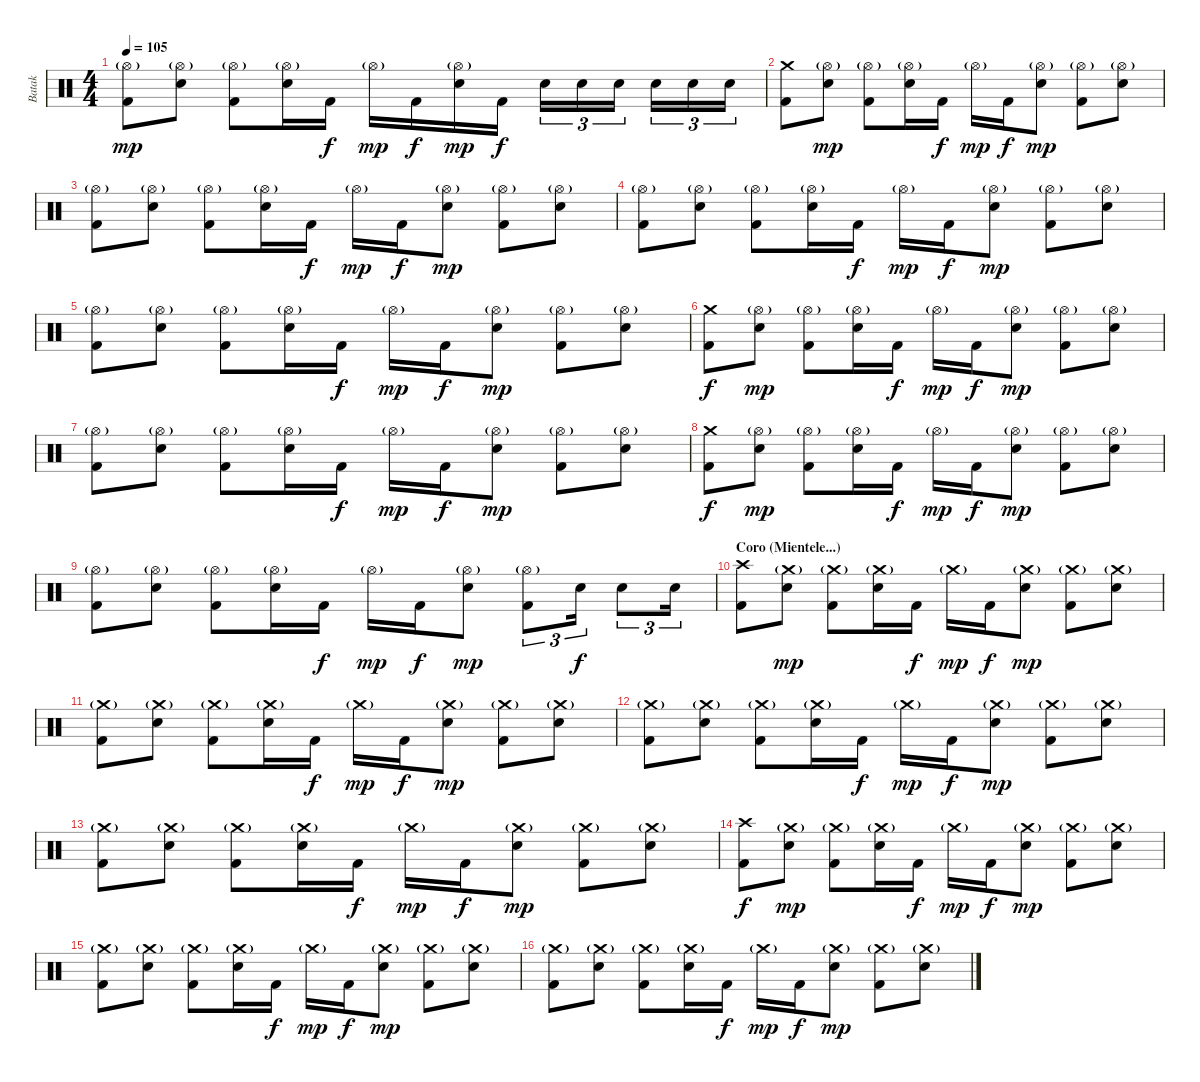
\track ("Batak" "Batak") {instrument percussion}
\staff {score}
\articulation defaults
\ts (4 4)
\tempo 105
\clef neutral
\ks c
("Hi-Hat (open)"{g} "Kick (hit) 2").8{dy mp} ("Hi-Hat (open)"{g} "Electric Snare (hit)").8 ("Hi-Hat (open)"{g} "Kick (hit) 2").8 ("Hi-Hat (open)"{g} "Electric Snare (hit)").16 "Kick (hit) 2".16{dy f} "Hi-Hat (open)"{g}.16{dy mp} "Kick (hit) 2".16{dy f} ("Hi-Hat (open)"{g} "Electric Snare (hit)").16{dy mp} "Kick (hit) 2".16{dy f} "Electric Snare (hit)".16{tu (3 2)} "Electric Snare (hit)".16{tu (3 2)} "Electric Snare (hit)".16{tu (3 2)} "Electric Snare (hit)".16{tu (3 2)} "Electric Snare (hit)".16{tu (3 2)} "Electric Snare (hit)".16{tu (3 2)} |
("Crash medium (hit)" "Kick (hit) 2").8 ("Hi-Hat (open)"{g} "Electric Snare (hit)").8{dy mp} ("Hi-Hat (open)"{g} "Kick (hit) 2").8 ("Hi-Hat (open)"{g} "Electric Snare (hit)").16 "Kick (hit) 2".16{dy f} "Hi-Hat (open)"{g}.16{dy mp} "Kick (hit) 2".16{dy f} ("Hi-Hat (open)"{g} "Electric Snare (hit)").8{dy mp} ("Hi-Hat (open)"{g} "Kick (hit) 2").8 ("Hi-Hat (open)"{g} "Electric Snare (hit)").8 |
("Hi-Hat (open)"{g} "Kick (hit) 2").8 ("Hi-Hat (open)"{g} "Electric Snare (hit)").8 ("Hi-Hat (open)"{g} "Kick (hit) 2").8 ("Hi-Hat (open)"{g} "Electric Snare (hit)").16 "Kick (hit) 2".16{dy f} "Hi-Hat (open)"{g}.16{dy mp} "Kick (hit) 2".16{dy f} ("Hi-Hat (open)"{g} "Electric Snare (hit)").8{dy mp} ("Hi-Hat (open)"{g} "Kick (hit) 2").8 ("Hi-Hat (open)"{g} "Electric Snare (hit)").8 |
("Hi-Hat (open)"{g} "Kick (hit) 2").8 ("Hi-Hat (open)"{g} "Electric Snare (hit)").8 ("Hi-Hat (open)"{g} "Kick (hit) 2").8 ("Hi-Hat (open)"{g} "Electric Snare (hit)").16 "Kick (hit) 2".16{dy f} "Hi-Hat (open)"{g}.16{dy mp} "Kick (hit) 2".16{dy f} ("Hi-Hat (open)"{g} "Electric Snare (hit)").8{dy mp} ("Hi-Hat (open)"{g} "Kick (hit) 2").8 ("Hi-Hat (open)"{g} "Electric Snare (hit)").8 |
("Hi-Hat (open)"{g} "Kick (hit) 2").8 ("Hi-Hat (open)"{g} "Electric Snare (hit)").8 ("Hi-Hat (open)"{g} "Kick (hit) 2").8 ("Hi-Hat (open)"{g} "Electric Snare (hit)").16 "Kick (hit) 2".16{dy f} "Hi-Hat (open)"{g}.16{dy mp} "Kick (hit) 2".16{dy f} ("Hi-Hat (open)"{g} "Electric Snare (hit)").8{dy mp} ("Hi-Hat (open)"{g} "Kick (hit) 2").8 ("Hi-Hat (open)"{g} "Electric Snare (hit)").8 |
("Crash medium (hit)" "Kick (hit) 2").8{dy f} ("Hi-Hat (open)"{g} "Electric Snare (hit)").8{dy mp} ("Hi-Hat (open)"{g} "Kick (hit) 2").8 ("Hi-Hat (open)"{g} "Electric Snare (hit)").16 "Kick (hit) 2".16{dy f} "Hi-Hat (open)"{g}.16{dy mp} "Kick (hit) 2".16{dy f} ("Hi-Hat (open)"{g} "Electric Snare (hit)").8{dy mp} ("Hi-Hat (open)"{g} "Kick (hit) 2").8 ("Hi-Hat (open)"{g} "Electric Snare (hit)").8 |
("Hi-Hat (open)"{g} "Kick (hit) 2").8 ("Hi-Hat (open)"{g} "Electric Snare (hit)").8 ("Hi-Hat (open)"{g} "Kick (hit) 2").8 ("Hi-Hat (open)"{g} "Electric Snare (hit)").16 "Kick (hit) 2".16{dy f} "Hi-Hat (open)"{g}.16{dy mp} "Kick (hit) 2".16{dy f} ("Hi-Hat (open)"{g} "Electric Snare (hit)").8{dy mp} ("Hi-Hat (open)"{g} "Kick (hit) 2").8 ("Hi-Hat (open)"{g} "Electric Snare (hit)").8 |
("Crash medium (hit)" "Kick (hit) 2").8{dy f} ("Hi-Hat (open)"{g} "Electric Snare (hit)").8{dy mp} ("Hi-Hat (open)"{g} "Kick (hit) 2").8 ("Hi-Hat (open)"{g} "Electric Snare (hit)").16 "Kick (hit) 2".16{dy f} "Hi-Hat (open)"{g}.16{dy mp} "Kick (hit) 2".16{dy f} ("Hi-Hat (open)"{g} "Electric Snare (hit)").8{dy mp} ("Hi-Hat (open)"{g} "Kick (hit) 2").8 ("Hi-Hat (open)"{g} "Electric Snare (hit)").8 |
("Hi-Hat (open)"{g} "Kick (hit) 2").8 ("Hi-Hat (open)"{g} "Electric Snare (hit)").8 ("Hi-Hat (open)"{g} "Kick (hit) 2").8 ("Hi-Hat (open)"{g} "Electric Snare (hit)").16 "Kick (hit) 2".16{dy f} "Hi-Hat (open)"{g}.16{dy mp} "Kick (hit) 2".16{dy f} ("Hi-Hat (open)"{g} "Electric Snare (hit)").8{dy mp} ("Hi-Hat (open)"{g} "Kick (hit) 2").8{tu (3 2)} "Electric Snare (hit)".16{tu (3 2) dy f} "Electric Snare (hit)".8{tu (3 2)} "Electric Snare (hit)".16{tu (3 2)} |
\section ("" "Coro (Mientele...)")
("Crash high (hit)" "Kick (hit) 2").8 ("Crash medium (hit)"{g} "Electric Snare (hit)").8{dy mp} ("Crash medium (hit)"{g} "Kick (hit) 2").8 ("Crash medium (hit)"{g} "Electric Snare (hit)").16 "Kick (hit) 2".16{dy f} "Crash medium (hit)"{g}.16{dy mp} "Kick (hit) 2".16{dy f} ("Crash medium (hit)"{g} "Electric Snare (hit)").8{dy mp} ("Crash medium (hit)"{g} "Kick (hit) 2").8 ("Crash medium (hit)"{g} "Electric Snare (hit)").8 |
("Crash medium (hit)"{g} "Kick (hit) 2").8 ("Crash medium (hit)"{g} "Electric Snare (hit)").8 ("Crash medium (hit)"{g} "Kick (hit) 2").8 ("Crash medium (hit)"{g} "Electric Snare (hit)").16 "Kick (hit) 2".16{dy f} "Crash medium (hit)"{g}.16{dy mp} "Kick (hit) 2".16{dy f} ("Crash medium (hit)"{g} "Electric Snare (hit)").8{dy mp} ("Crash medium (hit)"{g} "Kick (hit) 2").8 ("Crash medium (hit)"{g} "Electric Snare (hit)").8 |
("Crash medium (hit)"{g} "Kick (hit) 2").8 ("Crash medium (hit)"{g} "Electric Snare (hit)").8 ("Crash medium (hit)"{g} "Kick (hit) 2").8 ("Crash medium (hit)"{g} "Electric Snare (hit)").16 "Kick (hit) 2".16{dy f} "Crash medium (hit)"{g}.16{dy mp} "Kick (hit) 2".16{dy f} ("Crash medium (hit)"{g} "Electric Snare (hit)").8{dy mp} ("Crash medium (hit)"{g} "Kick (hit) 2").8 ("Crash medium (hit)"{g} "Electric Snare (hit)").8 |
("Crash medium (hit)"{g} "Kick (hit) 2").8 ("Crash medium (hit)"{g} "Electric Snare (hit)").8 ("Crash medium (hit)"{g} "Kick (hit) 2").8 ("Crash medium (hit)"{g} "Electric Snare (hit)").16 "Kick (hit) 2".16{dy f} "Crash medium (hit)"{g}.16{dy mp} "Kick (hit) 2".16{dy f} ("Crash medium (hit)"{g} "Electric Snare (hit)").8{dy mp} ("Crash medium (hit)"{g} "Kick (hit) 2").8 ("Crash medium (hit)"{g} "Electric Snare (hit)").8 |
("Crash high (hit)" "Kick (hit) 2").8{dy f} ("Crash medium (hit)"{g} "Electric Snare (hit)").8{dy mp} ("Crash medium (hit)"{g} "Kick (hit) 2").8 ("Crash medium (hit)"{g} "Electric Snare (hit)").16 "Kick (hit) 2".16{dy f} "Crash medium (hit)"{g}.16{dy mp} "Kick (hit) 2".16{dy f} ("Crash medium (hit)"{g} "Electric Snare (hit)").8{dy mp} ("Crash medium (hit)"{g} "Kick (hit) 2").8 ("Crash medium (hit)"{g} "Electric Snare (hit)").8 |
("Crash medium (hit)"{g} "Kick (hit) 2").8 ("Crash medium (hit)"{g} "Electric Snare (hit)").8 ("Crash medium (hit)"{g} "Kick (hit) 2").8 ("Crash medium (hit)"{g} "Electric Snare (hit)").16 "Kick (hit) 2".16{dy f} "Crash medium (hit)"{g}.16{dy mp} "Kick (hit) 2".16{dy f} ("Crash medium (hit)"{g} "Electric Snare (hit)").8{dy mp} ("Crash medium (hit)"{g} "Kick (hit) 2").8 ("Crash medium (hit)"{g} "Electric Snare (hit)").8 |
("Crash medium (hit)"{g} "Kick (hit) 2").8 ("Crash medium (hit)"{g} "Electric Snare (hit)").8 ("Crash medium (hit)"{g} "Kick (hit) 2").8 ("Crash medium (hit)"{g} "Electric Snare (hit)").16 "Kick (hit) 2".16{dy f} "Crash medium (hit)"{g}.16{dy mp} "Kick (hit) 2".16{dy f} ("Crash medium (hit)"{g} "Electric Snare (hit)").8{dy mp} ("Crash medium (hit)"{g} "Kick (hit) 2").8 ("Crash medium (hit)"{g} "Electric Snare (hit)").8
